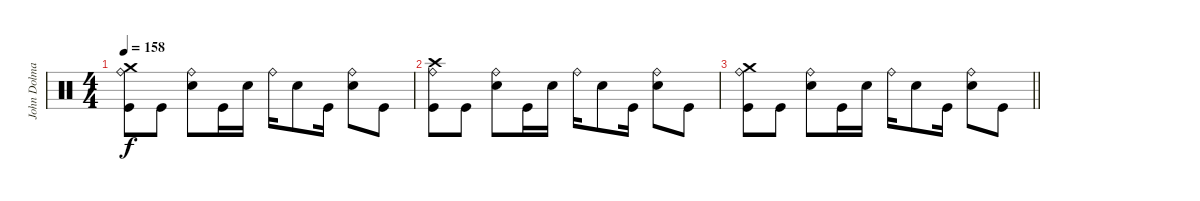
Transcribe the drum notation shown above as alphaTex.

\track ("John Dolmayan (drums)" "John Dolma") {instrument percussion}
\staff {score}
\articulation defaults
\ts (4 4)
\tempo 158
\clef neutral
\ks c
("Crash medium (hit)" "Ride (bell)" "Kick (hit)").8{dy f} "Kick (hit)".8 ("Ride (bell)" "Snare (hit) 2").8 "Kick (hit)".16 "Snare (hit) 2".16 "Ride (bell)".16 "Snare (hit) 2".8 "Kick (hit)".16 ("Ride (bell)" "Snare (hit) 2").8 "Kick (hit)".8 |
("Crash high (hit)" "Ride (bell)" "Kick (hit)").8 "Kick (hit)".8 ("Ride (bell)" "Snare (hit) 2").8 "Kick (hit)".16 "Snare (hit) 2".16 "Ride (bell)".16 "Snare (hit) 2".8 "Kick (hit)".16 ("Ride (bell)" "Snare (hit) 2").8 "Kick (hit)".8 |
\barLineRight lightlight
("Crash medium (hit)" "Ride (bell)" "Kick (hit)").8 "Kick (hit)".8 ("Ride (bell)" "Snare (hit) 2").8 "Kick (hit)".16 "Snare (hit) 2".16 "Ride (bell)".16 "Snare (hit) 2".8 "Kick (hit)".16 ("Ride (bell)" "Snare (hit) 2").8 "Kick (hit)".8
